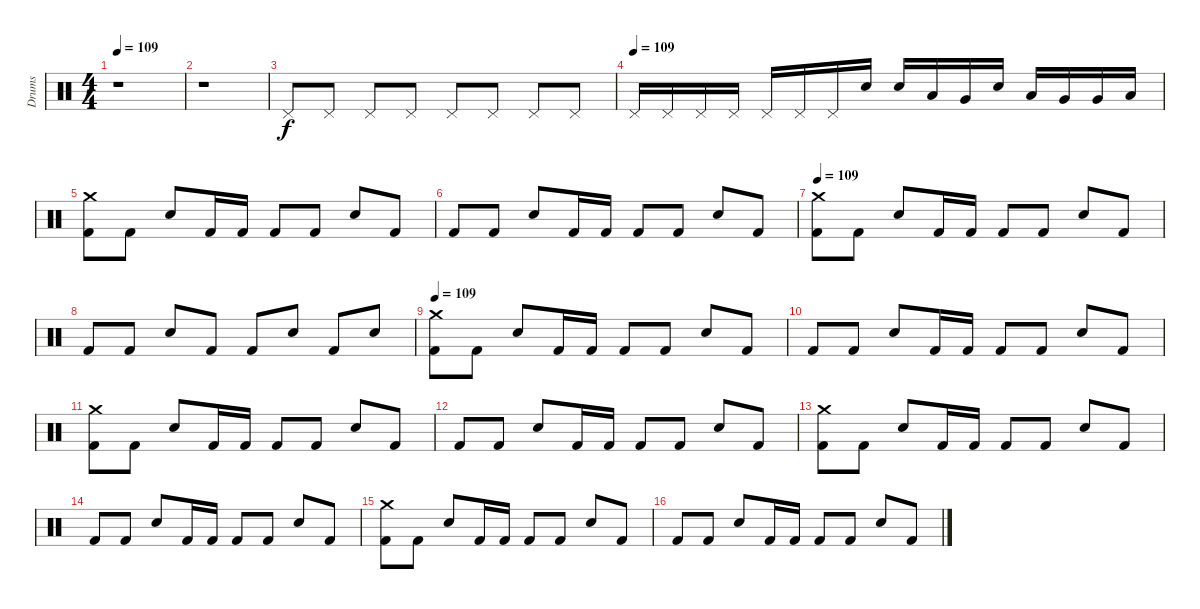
\track ("Drums" "Drums") {instrument percussion}
\staff {score}
\articulation defaults
\ts (4 4)
\tempo 109
\clef neutral
\ks c
r.1{dy f} |
r.1 |
"Pedal Hi-Hat (hit)".8 "Pedal Hi-Hat (hit)".8 "Pedal Hi-Hat (hit)".8 "Pedal Hi-Hat (hit)".8 "Pedal Hi-Hat (hit)".8 "Pedal Hi-Hat (hit)".8 "Pedal Hi-Hat (hit)".8 "Pedal Hi-Hat (hit)".8 |
\tempo (109)
"Pedal Hi-Hat (hit)".16 "Pedal Hi-Hat (hit)".16 "Pedal Hi-Hat (hit)".16 "Pedal Hi-Hat (hit)".16 "Pedal Hi-Hat (hit)".16 "Pedal Hi-Hat (hit)".16 "Pedal Hi-Hat (hit)".16 "Snare (hit) 2".16 "Snare (hit) 2".16 "Low Tom (hit)".16 "Very Low Tom (hit)".16 "Snare (hit) 2".16 "Low Tom (hit)".16 "Very Low Tom (hit)".16 "Very Low Tom (hit)".16 "Low Floor Tom (hit)".16 |
("Crash medium (hit)" "Kick (hit) 2").8 "Kick (hit) 2".8 "Snare (hit) 2".8 "Kick (hit) 2".16 "Kick (hit) 2".16 "Kick (hit) 2".8 "Kick (hit) 2".8 "Snare (hit) 2".8 "Kick (hit) 2".8 |
"Kick (hit) 2".8 "Kick (hit) 2".8 "Snare (hit) 2".8 "Kick (hit) 2".16 "Kick (hit) 2".16 "Kick (hit) 2".8 "Kick (hit) 2".8 "Snare (hit) 2".8 "Kick (hit) 2".8 |
\tempo 109
("Crash medium (hit)" "Kick (hit) 2").8 "Kick (hit) 2".8 "Snare (hit) 2".8 "Kick (hit) 2".16 "Kick (hit) 2".16 "Kick (hit) 2".8 "Kick (hit) 2".8 "Snare (hit) 2".8 "Kick (hit) 2".8 |
"Kick (hit) 2".8 "Kick (hit) 2".8 "Snare (hit) 2".8 "Kick (hit) 2".8 "Kick (hit) 2".8 "Snare (hit) 2".8 "Kick (hit) 2".8 "Snare (hit) 2".8 |
\tempo 109
("Crash medium (hit)" "Kick (hit) 2").8 "Kick (hit) 2".8 "Snare (hit) 2".8 "Kick (hit) 2".16 "Kick (hit) 2".16 "Kick (hit) 2".8 "Kick (hit) 2".8 "Snare (hit) 2".8 "Kick (hit) 2".8 |
"Kick (hit) 2".8 "Kick (hit) 2".8 "Snare (hit) 2".8 "Kick (hit) 2".16 "Kick (hit) 2".16 "Kick (hit) 2".8 "Kick (hit) 2".8 "Snare (hit) 2".8 "Kick (hit) 2".8 |
("Crash medium (hit)" "Kick (hit) 2").8 "Kick (hit) 2".8 "Snare (hit) 2".8 "Kick (hit) 2".16 "Kick (hit) 2".16 "Kick (hit) 2".8 "Kick (hit) 2".8 "Snare (hit) 2".8 "Kick (hit) 2".8 |
"Kick (hit) 2".8 "Kick (hit) 2".8 "Snare (hit) 2".8 "Kick (hit) 2".16 "Kick (hit) 2".16 "Kick (hit) 2".8 "Kick (hit) 2".8 "Snare (hit) 2".8 "Kick (hit) 2".8 |
("Crash medium (hit)" "Kick (hit) 2").8 "Kick (hit) 2".8 "Snare (hit) 2".8 "Kick (hit) 2".16 "Kick (hit) 2".16 "Kick (hit) 2".8 "Kick (hit) 2".8 "Snare (hit) 2".8 "Kick (hit) 2".8 |
"Kick (hit) 2".8 "Kick (hit) 2".8 "Snare (hit) 2".8 "Kick (hit) 2".16 "Kick (hit) 2".16 "Kick (hit) 2".8 "Kick (hit) 2".8 "Snare (hit) 2".8 "Kick (hit) 2".8 |
("Crash medium (hit)" "Kick (hit) 2").8 "Kick (hit) 2".8 "Snare (hit) 2".8 "Kick (hit) 2".16 "Kick (hit) 2".16 "Kick (hit) 2".8 "Kick (hit) 2".8 "Snare (hit) 2".8 "Kick (hit) 2".8 |
"Kick (hit) 2".8 "Kick (hit) 2".8 "Snare (hit) 2".8 "Kick (hit) 2".16 "Kick (hit) 2".16 "Kick (hit) 2".8 "Kick (hit) 2".8 "Snare (hit) 2".8 "Kick (hit) 2".8
